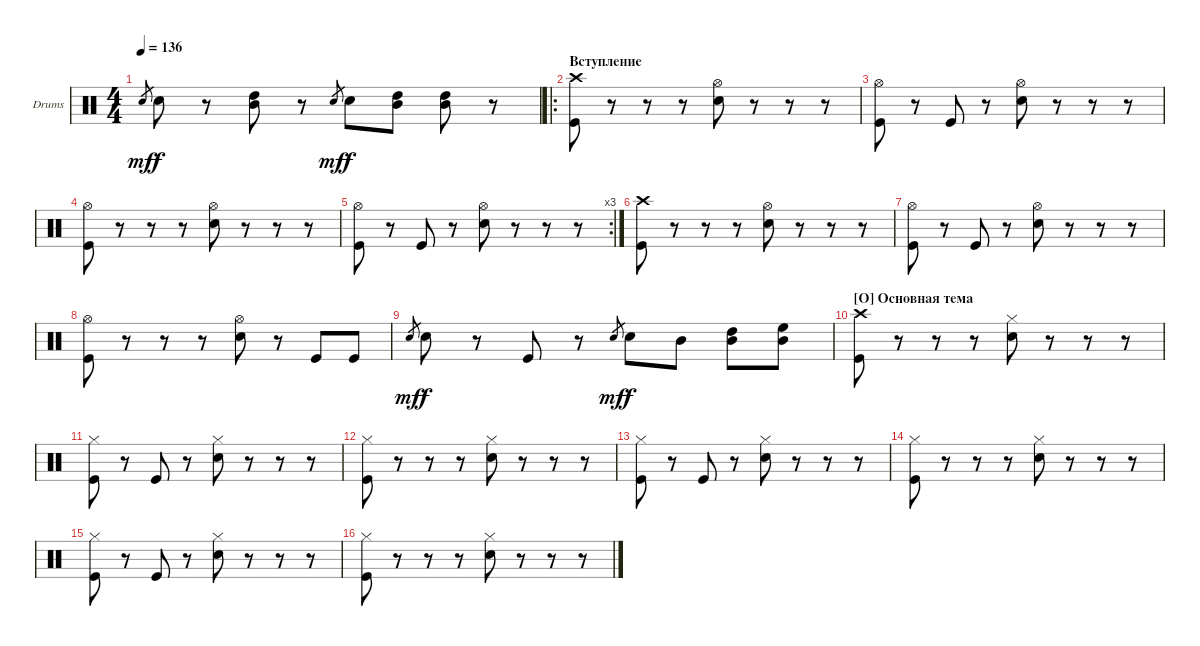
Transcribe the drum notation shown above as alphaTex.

\defaultSystemsLayout 4
\bracketExtendMode groupsimilarinstruments
\firstSystemTrackNameOrientation horizontal
\otherSystemsTrackNameOrientation horizontal
\track ("Барабаны" "Drums") {instrument percussion}
\staff {score}
\articulation defaults
\ts (4 4)
\tempo 136
\clef neutral
\scale
0.447368
\ks c "Snare (hit) 2".8{gr dy mf} "Snare (hit) 2".8{dy f}
r.8 ("Mid Tom (hit)" "High Tom (hit)").8 r.8 "Snare (hit) 2".8{gr dy mf} "Snare (hit) 2".8{dy f} ("Mid Tom (hit)" "High Tom (hit)").8 ("Mid Tom (hit)" "High Tom (hit)").8 r.8 |
\ro
\section ("" "Вступление")
\scale
0.302632 ("Crash high (hit)" "Kick (hit)").8 r.8 r.8 r.8 ("Hi-Hat (open)" "Snare (hit) 2").8 r.8 r.8 r.8 |
\scale
0.25 ("Hi-Hat (open)" "Kick (hit)").8 r.8 "Kick (hit)".8 r.8 ("Hi-Hat (open)" "Snare (hit) 2").8 r.8 r.8 r.8 |
("Hi-Hat (open)" "Kick (hit)").8 r.8 r.8 r.8 ("Hi-Hat (open)" "Snare (hit) 2").8 r.8 r.8 r.8 |
\rc 3
("Hi-Hat (open)" "Kick (hit)").8 r.8 "Kick (hit)".8 r.8 ("Hi-Hat (open)" "Snare (hit) 2").8 r.8 r.8 r.8 |
("Crash high (hit)" "Kick (hit)").8 r.8 r.8 r.8 ("Hi-Hat (open)" "Snare (hit) 2").8 r.8 r.8 r.8 |
("Hi-Hat (open)" "Kick (hit)").8 r.8 "Kick (hit)".8 r.8 ("Hi-Hat (open)" "Snare (hit) 2").8 r.8 r.8 r.8 |
("Hi-Hat (open)" "Kick (hit)").8 r.8 r.8 r.8 ("Hi-Hat (open)" "Snare (hit) 2").8 r.8 "Kick (hit)".8 "Kick (hit)".8 |
"Snare (hit) 2".8{gr dy mf} "Snare (hit) 2".8{dy f} r.8 "Kick (hit)".8 r.8 "Snare (hit) 2".8{gr dy mf} "Snare (hit) 2".8{dy f} "Mid Tom (hit)".8 ("Mid Tom (hit)" "High Tom (hit)").8 ("Mid Tom (hit)" "High Floor Tom (hit)").8 |
\section ("O" "Основная тема")
("Crash high (hit)" "Kick (hit)").8 r.8 r.8 r.8 ("Hi-Hat (closed)" "Snare (hit) 2").8 r.8 r.8 r.8 |
("Hi-Hat (closed)" "Kick (hit)").8 r.8 "Kick (hit)".8 r.8 ("Hi-Hat (closed)" "Snare (hit) 2").8 r.8 r.8 r.8 |
("Hi-Hat (closed)" "Kick (hit)").8 r.8 r.8 r.8 ("Hi-Hat (closed)" "Snare (hit) 2").8 r.8 r.8 r.8 |
("Hi-Hat (closed)" "Kick (hit)").8 r.8 "Kick (hit)".8 r.8 ("Hi-Hat (closed)" "Snare (hit) 2").8 r.8 r.8 r.8 |
("Hi-Hat (closed)" "Kick (hit)").8 r.8 r.8 r.8 ("Hi-Hat (closed)" "Snare (hit) 2").8 r.8 r.8 r.8 |
("Hi-Hat (closed)" "Kick (hit)").8 r.8 "Kick (hit)".8 r.8 ("Hi-Hat (closed)" "Snare (hit) 2").8 r.8 r.8 r.8 |
("Hi-Hat (closed)" "Kick (hit)").8 r.8 r.8 r.8 ("Hi-Hat (closed)" "Snare (hit) 2").8 r.8 r.8 r.8
